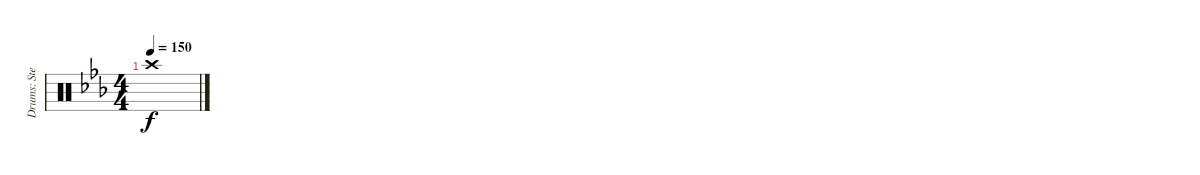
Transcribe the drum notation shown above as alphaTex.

\track ("Drums: Stefan Svantesson" "Drums: Ste") {instrument percussion}
\staff {score}
\articulation defaults
\ts (4 4)
\tempo 150
\clef neutral
\ks cminor "Crash high (hit)".1{dy f}
